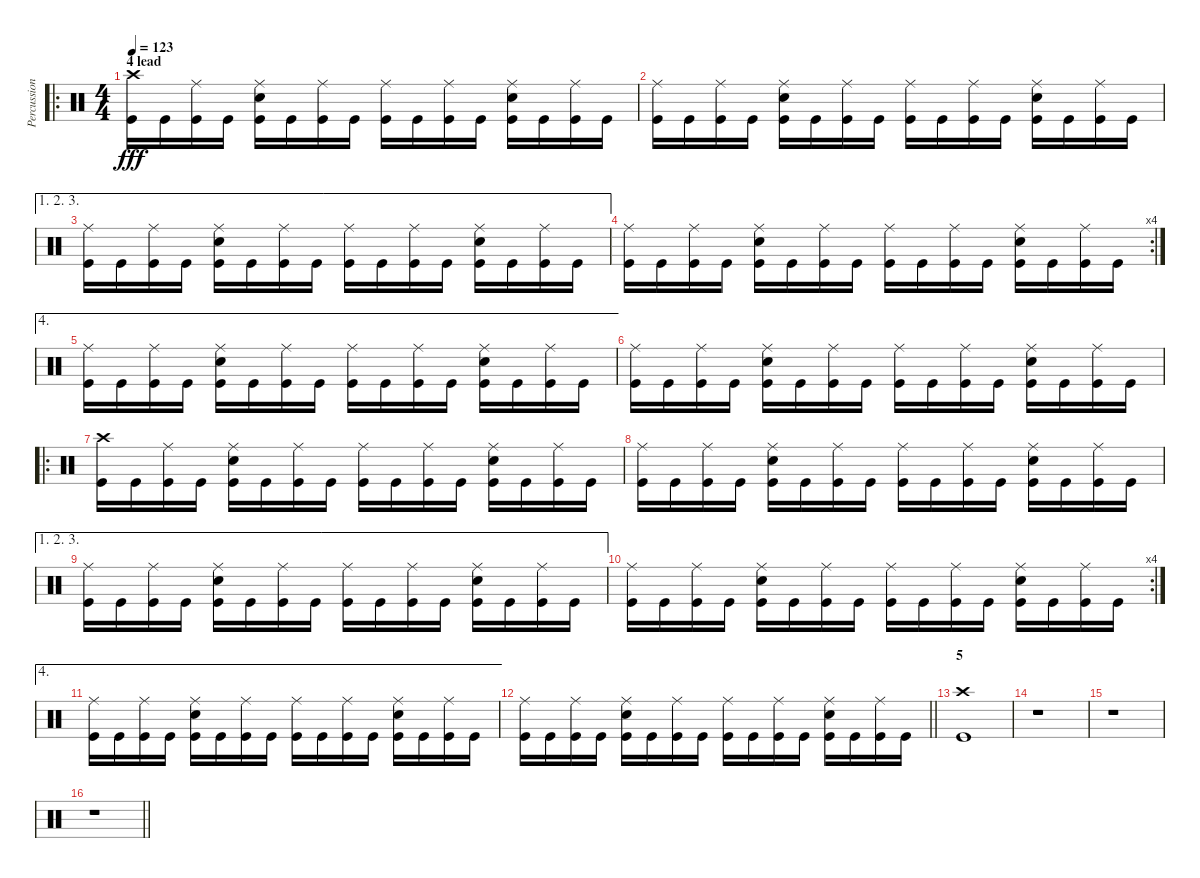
\track ("Percussion" "Percussion") {instrument percussion}
\staff {score}
\articulation defaults
\ro
\ts (4 4)
\section ("" "4 lead")
\tempo 123
\clef neutral
\ks c
("Crash high (hit)" "Kick (hit)").16{dy fff} "Kick (hit)".16 ("Ride (middle)" "Kick (hit)").16 "Kick (hit)".16 ("Ride (middle)" "Snare (hit) 2" "Kick (hit)").16 "Kick (hit)".16 ("Ride (middle)" "Kick (hit)").16 "Kick (hit)".16 ("Ride (middle)" "Kick (hit)").16 "Kick (hit)".16 ("Ride (middle)" "Kick (hit)").16 "Kick (hit)".16 ("Ride (middle)" "Snare (hit) 2" "Kick (hit)").16 "Kick (hit)".16 ("Ride (middle)" "Kick (hit)").16 "Kick (hit)".16 |
("Ride (middle)" "Kick (hit)").16 "Kick (hit)".16 ("Ride (middle)" "Kick (hit)").16 "Kick (hit)".16 ("Ride (middle)" "Snare (hit) 2" "Kick (hit)").16 "Kick (hit)".16 ("Ride (middle)" "Kick (hit)").16 "Kick (hit)".16 ("Ride (middle)" "Kick (hit)").16 "Kick (hit)".16 ("Ride (middle)" "Kick (hit)").16 "Kick (hit)".16 ("Ride (middle)" "Snare (hit) 2" "Kick (hit)").16 "Kick (hit)".16 ("Ride (middle)" "Kick (hit)").16 "Kick (hit)".16 |
\ae (1 2 3)
("Ride (middle)" "Kick (hit)").16 "Kick (hit)".16 ("Ride (middle)" "Kick (hit)").16 "Kick (hit)".16 ("Ride (middle)" "Snare (hit) 2" "Kick (hit)").16 "Kick (hit)".16 ("Ride (middle)" "Kick (hit)").16 "Kick (hit)".16 ("Ride (middle)" "Kick (hit)").16 "Kick (hit)".16 ("Ride (middle)" "Kick (hit)").16 "Kick (hit)".16 ("Ride (middle)" "Snare (hit) 2" "Kick (hit)").16 "Kick (hit)".16 ("Ride (middle)" "Kick (hit)").16 "Kick (hit)".16 |
\rc 4
("Ride (middle)" "Kick (hit)").16 "Kick (hit)".16 ("Ride (middle)" "Kick (hit)").16 "Kick (hit)".16 ("Ride (middle)" "Snare (hit) 2" "Kick (hit)").16 "Kick (hit)".16 ("Ride (middle)" "Kick (hit)").16 "Kick (hit)".16 ("Ride (middle)" "Kick (hit)").16 "Kick (hit)".16 ("Ride (middle)" "Kick (hit)").16 "Kick (hit)".16 ("Ride (middle)" "Snare (hit) 2" "Kick (hit)").16 "Kick (hit)".16 ("Ride (middle)" "Kick (hit)").16 "Kick (hit)".16 |
\ae 4
("Ride (middle)" "Kick (hit)").16 "Kick (hit)".16 ("Ride (middle)" "Kick (hit)").16 "Kick (hit)".16 ("Ride (middle)" "Snare (hit) 2" "Kick (hit)").16 "Kick (hit)".16 ("Ride (middle)" "Kick (hit)").16 "Kick (hit)".16 ("Ride (middle)" "Kick (hit)").16 "Kick (hit)".16 ("Ride (middle)" "Kick (hit)").16 "Kick (hit)".16 ("Ride (middle)" "Snare (hit) 2" "Kick (hit)").16 "Kick (hit)".16 ("Ride (middle)" "Kick (hit)").16 "Kick (hit)".16 |
("Ride (middle)" "Kick (hit)").16 "Kick (hit)".16 ("Ride (middle)" "Kick (hit)").16 "Kick (hit)".16 ("Ride (middle)" "Snare (hit) 2" "Kick (hit)").16 "Kick (hit)".16 ("Ride (middle)" "Kick (hit)").16 "Kick (hit)".16 ("Ride (middle)" "Kick (hit)").16 "Kick (hit)".16 ("Ride (middle)" "Kick (hit)").16 "Kick (hit)".16 ("Ride (middle)" "Snare (hit) 2" "Kick (hit)").16 "Kick (hit)".16 ("Ride (middle)" "Kick (hit)").16 "Kick (hit)".16 |
\ro
("Crash high (hit)" "Kick (hit)").16 "Kick (hit)".16 ("Ride (middle)" "Kick (hit)").16 "Kick (hit)".16 ("Ride (middle)" "Snare (hit) 2" "Kick (hit)").16 "Kick (hit)".16 ("Ride (middle)" "Kick (hit)").16 "Kick (hit)".16 ("Ride (middle)" "Kick (hit)").16 "Kick (hit)".16 ("Ride (middle)" "Kick (hit)").16 "Kick (hit)".16 ("Ride (middle)" "Snare (hit) 2" "Kick (hit)").16 "Kick (hit)".16 ("Ride (middle)" "Kick (hit)").16 "Kick (hit)".16 |
("Ride (middle)" "Kick (hit)").16 "Kick (hit)".16 ("Ride (middle)" "Kick (hit)").16 "Kick (hit)".16 ("Ride (middle)" "Snare (hit) 2" "Kick (hit)").16 "Kick (hit)".16 ("Ride (middle)" "Kick (hit)").16 "Kick (hit)".16 ("Ride (middle)" "Kick (hit)").16 "Kick (hit)".16 ("Ride (middle)" "Kick (hit)").16 "Kick (hit)".16 ("Ride (middle)" "Snare (hit) 2" "Kick (hit)").16 "Kick (hit)".16 ("Ride (middle)" "Kick (hit)").16 "Kick (hit)".16 |
\ae (1 2 3)
("Ride (middle)" "Kick (hit)").16 "Kick (hit)".16 ("Ride (middle)" "Kick (hit)").16 "Kick (hit)".16 ("Ride (middle)" "Snare (hit) 2" "Kick (hit)").16 "Kick (hit)".16 ("Ride (middle)" "Kick (hit)").16 "Kick (hit)".16 ("Ride (middle)" "Kick (hit)").16 "Kick (hit)".16 ("Ride (middle)" "Kick (hit)").16 "Kick (hit)".16 ("Ride (middle)" "Snare (hit) 2" "Kick (hit)").16 "Kick (hit)".16 ("Ride (middle)" "Kick (hit)").16 "Kick (hit)".16 |
\rc 4
("Ride (middle)" "Kick (hit)").16 "Kick (hit)".16 ("Ride (middle)" "Kick (hit)").16 "Kick (hit)".16 ("Ride (middle)" "Snare (hit) 2" "Kick (hit)").16 "Kick (hit)".16 ("Ride (middle)" "Kick (hit)").16 "Kick (hit)".16 ("Ride (middle)" "Kick (hit)").16 "Kick (hit)".16 ("Ride (middle)" "Kick (hit)").16 "Kick (hit)".16 ("Ride (middle)" "Snare (hit) 2" "Kick (hit)").16 "Kick (hit)".16 ("Ride (middle)" "Kick (hit)").16 "Kick (hit)".16 |
\ae 4
("Ride (middle)" "Kick (hit)").16 "Kick (hit)".16 ("Ride (middle)" "Kick (hit)").16 "Kick (hit)".16 ("Ride (middle)" "Snare (hit) 2" "Kick (hit)").16 "Kick (hit)".16 ("Ride (middle)" "Kick (hit)").16 "Kick (hit)".16 ("Ride (middle)" "Kick (hit)").16 "Kick (hit)".16 ("Ride (middle)" "Kick (hit)").16 "Kick (hit)".16 ("Ride (middle)" "Snare (hit) 2" "Kick (hit)").16 "Kick (hit)".16 ("Ride (middle)" "Kick (hit)").16 "Kick (hit)".16 |
\barLineRight lightlight
("Ride (middle)" "Kick (hit)").16 "Kick (hit)".16 ("Ride (middle)" "Kick (hit)").16 "Kick (hit)".16 ("Ride (middle)" "Snare (hit) 2" "Kick (hit)").16 "Kick (hit)".16 ("Ride (middle)" "Kick (hit)").16 "Kick (hit)".16 ("Ride (middle)" "Kick (hit)").16 "Kick (hit)".16 ("Ride (middle)" "Kick (hit)").16 "Kick (hit)".16 ("Ride (middle)" "Snare (hit) 2" "Kick (hit)").16 "Kick (hit)".16 ("Ride (middle)" "Kick (hit)").16 "Kick (hit)".16 |
\section ("" "5")
("Crash high (hit)" "Kick (hit)").1 |
r.1 |
r.1 |
\barLineRight lightlight
r.1
